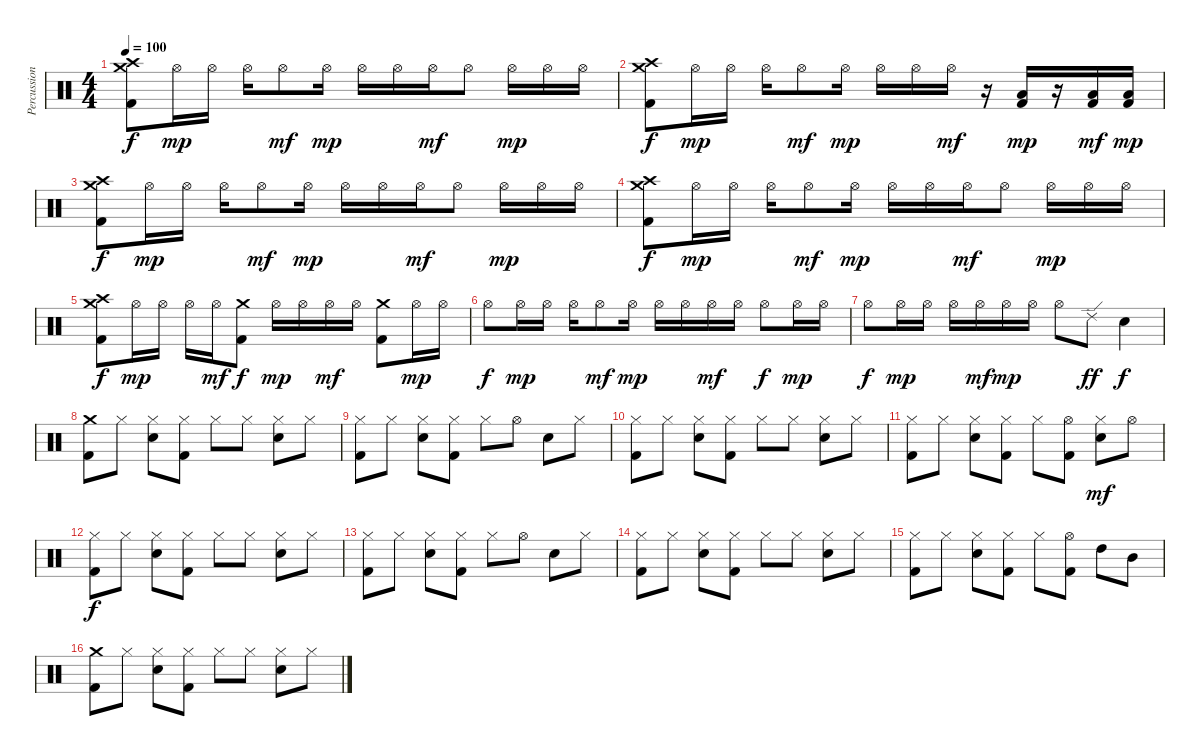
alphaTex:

\track ("Percussion" "Percussion") {instrument percussion}
\staff {score}
\articulation defaults
\ts (4 4)
\tempo 100
\clef neutral
\ks c
("Crash high (hit)" "Crash medium (hit)" "Kick (hit) 2").8{dy f} "Hi-Hat (open)".16{dy mp} "Hi-Hat (open)".16 "Hi-Hat (open)".16 "Hi-Hat (open)".8{dy mf} "Hi-Hat (open)".16{dy mp} "Hi-Hat (open)".16 "Hi-Hat (open)".16 "Hi-Hat (open)".16{dy mf} "Hi-Hat (open)".8 "Hi-Hat (open)".16{dy mp} "Hi-Hat (open)".16 "Hi-Hat (open)".16 |
("Crash high (hit)" "Crash medium (hit)" "Kick (hit) 2").8{dy f} "Hi-Hat (open)".16{dy mp} "Hi-Hat (open)".16 "Hi-Hat (open)".16 "Hi-Hat (open)".8{dy mf} "Hi-Hat (open)".16{dy mp} "Hi-Hat (open)".16 "Hi-Hat (open)".16 "Hi-Hat (open)".16{dy mf} r.16 ("Low Tom (hit)" "Kick (hit) 2").16{dy mp} r.16 ("Low Floor Tom (hit)" "Kick (hit) 2").16{dy mf} ("Low Floor Tom (hit)" "Kick (hit) 2").16{dy mp} |
("Crash high (hit)" "Crash medium (hit)" "Kick (hit) 2").8{dy f} "Hi-Hat (open)".16{dy mp} "Hi-Hat (open)".16 "Hi-Hat (open)".16 "Hi-Hat (open)".8{dy mf} "Hi-Hat (open)".16{dy mp} "Hi-Hat (open)".16 "Hi-Hat (open)".16 "Hi-Hat (open)".16{dy mf} "Hi-Hat (open)".8 "Hi-Hat (open)".16{dy mp} "Hi-Hat (open)".16 "Hi-Hat (open)".16 |
("Crash high (hit)" "Crash medium (hit)" "Kick (hit) 2").8{dy f} "Hi-Hat (open)".16{dy mp} "Hi-Hat (open)".16 "Hi-Hat (open)".16 "Hi-Hat (open)".8{dy mf} "Hi-Hat (open)".16{dy mp} "Hi-Hat (open)".16 "Hi-Hat (open)".16 "Hi-Hat (open)".16{dy mf} "Hi-Hat (open)".8 "Hi-Hat (open)".16{dy mp} "Hi-Hat (open)".16 "Hi-Hat (open)".16 |
("Crash high (hit)" "Crash medium (hit)" "Kick (hit) 2").8{dy f} "Hi-Hat (open)".16{dy mp} "Hi-Hat (open)".16 "Hi-Hat (open)".16 "Hi-Hat (open)".16{dy mf} ("Crash medium (hit)" "Kick (hit) 2").8{dy f} "Hi-Hat (open)".16{dy mp} "Hi-Hat (open)".16 "Hi-Hat (open)".16{dy mf} "Hi-Hat (open)".16 ("Crash medium (hit)" "Kick (hit) 2").8 "Hi-Hat (open)".16{dy mp} "Hi-Hat (open)".16 |
"Hi-Hat (open)".8{dy f} "Hi-Hat (open)".16{dy mp} "Hi-Hat (open)".16 "Hi-Hat (open)".16 "Hi-Hat (open)".8{dy mf} "Hi-Hat (open)".16{dy mp} "Hi-Hat (open)".16 "Hi-Hat (open)".16 "Hi-Hat (open)".16{dy mf} "Hi-Hat (open)".16 "Hi-Hat (open)".8{dy f} "Hi-Hat (open)".16{dy mp} "Hi-Hat (open)".16 |
"Hi-Hat (open)".8{dy f} "Hi-Hat (open)".16{dy mp} "Hi-Hat (open)".16 "Hi-Hat (open)".16 "Hi-Hat (open)".16{dy mf} "Hi-Hat (open)".16{dy mp} "Hi-Hat (open)".16 "Hi-Hat (open)".8 "Ride (edge) 2".8{dy ff} "Electric Snare (hit)".4{dy f} |
("Crash medium (hit)" "Kick (hit) 2").8 "Hi-Hat (closed)".8 ("Hi-Hat (closed)" "Electric Snare (hit)").8 ("Hi-Hat (closed)" "Kick (hit) 2").8 "Hi-Hat (closed)".8 "Hi-Hat (closed)".8 ("Hi-Hat (closed)" "Electric Snare (hit)").8 "Hi-Hat (closed)".8 |
("Hi-Hat (closed)" "Kick (hit) 2").8 "Hi-Hat (closed)".8 ("Hi-Hat (closed)" "Electric Snare (hit)").8 ("Hi-Hat (closed)" "Kick (hit) 2").8 "Hi-Hat (closed)".8 "Hi-Hat (open)".8 "Electric Snare (hit)".8 "Hi-Hat (closed)".8 |
("Hi-Hat (closed)" "Kick (hit) 2").8 "Hi-Hat (closed)".8 ("Hi-Hat (closed)" "Electric Snare (hit)").8 ("Hi-Hat (closed)" "Kick (hit) 2").8 "Hi-Hat (closed)".8 "Hi-Hat (closed)".8 ("Hi-Hat (closed)" "Electric Snare (hit)").8 "Hi-Hat (closed)".8 |
("Hi-Hat (closed)" "Kick (hit) 2").8 "Hi-Hat (closed)".8 ("Hi-Hat (closed)" "Electric Snare (hit)").8 ("Hi-Hat (closed)" "Kick (hit) 2").8 "Hi-Hat (closed)".8 ("Hi-Hat (open)" "Kick (hit) 2").8 ("Hi-Hat (closed)" "Electric Snare (hit)").8{dy mf} "Hi-Hat (open)".8 |
("Hi-Hat (closed)" "Kick (hit) 2").8{dy f} "Hi-Hat (closed)".8 ("Hi-Hat (closed)" "Electric Snare (hit)").8 ("Hi-Hat (closed)" "Kick (hit) 2").8 "Hi-Hat (closed)".8 "Hi-Hat (closed)".8 ("Hi-Hat (closed)" "Electric Snare (hit)").8 "Hi-Hat (closed)".8 |
("Hi-Hat (closed)" "Kick (hit) 2").8 "Hi-Hat (closed)".8 ("Hi-Hat (closed)" "Electric Snare (hit)").8 ("Hi-Hat (closed)" "Kick (hit) 2").8 "Hi-Hat (closed)".8 "Hi-Hat (open)".8 "Electric Snare (hit)".8 "Hi-Hat (closed)".8 |
("Hi-Hat (closed)" "Kick (hit) 2").8 "Hi-Hat (closed)".8 ("Hi-Hat (closed)" "Electric Snare (hit)").8 ("Hi-Hat (closed)" "Kick (hit) 2").8 "Hi-Hat (closed)".8 "Hi-Hat (closed)".8 ("Hi-Hat (closed)" "Electric Snare (hit)").8 "Hi-Hat (closed)".8 |
("Hi-Hat (closed)" "Kick (hit) 2").8 "Hi-Hat (closed)".8 ("Hi-Hat (closed)" "Electric Snare (hit)").8 ("Hi-Hat (closed)" "Kick (hit) 2").8 "Hi-Hat (closed)".8 ("Hi-Hat (open)" "Kick (hit) 2").8 "High Tom (hit)".8 "Mid Tom (hit)".8 |
("Crash medium (hit)" "Kick (hit) 2").8 "Hi-Hat (closed)".8 ("Hi-Hat (closed)" "Electric Snare (hit)").8 ("Hi-Hat (closed)" "Kick (hit) 2").8 "Hi-Hat (closed)".8 "Hi-Hat (closed)".8 ("Hi-Hat (closed)" "Electric Snare (hit)").8 "Hi-Hat (closed)".8
